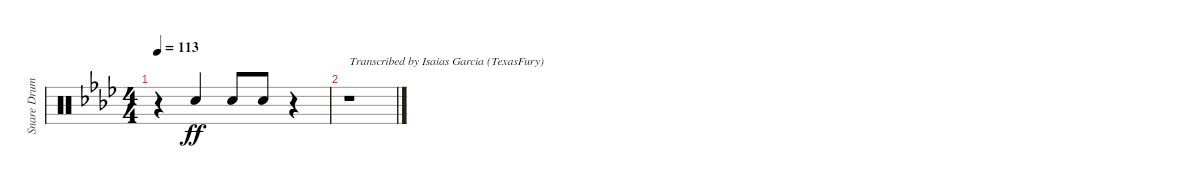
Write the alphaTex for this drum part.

\track ("Snare Drum" "Snare Drum") {instrument percussion}
\staff {score}
\articulation defaults
\ts (4 4)
\tempo 113
\clef neutral
\ks fminor
r.4{dy ff} "Electric Snare (hit)".4{beam Up} "Electric Snare (hit)".8{beam Up} "Electric Snare (hit)".8{beam Up} r.4{volume 0} |
r.1{txt "Transcribed by Isaias Garcia (TexasFury)"}
